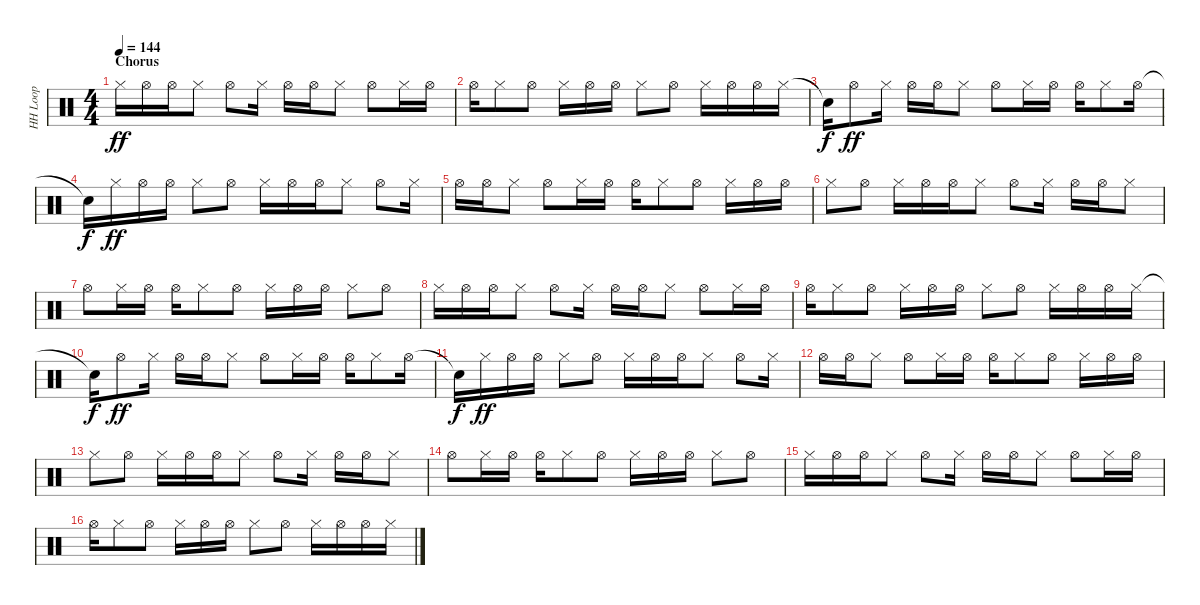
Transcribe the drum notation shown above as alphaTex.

\track ("HH Loop" "HH Loop") {instrument percussion}
\staff {score}
\articulation defaults
\ts (4 4)
\section ("" "Chorus")
\tempo 144
\clef neutral
\ks c "Hi-Hat (closed)".16{dy ff} "Hi-Hat (open)".16 "Hi-Hat (open)".16 "Hi-Hat (closed)".8 "Hi-Hat (open)".8 "Hi-Hat (closed)".16 "Hi-Hat (open)".16 "Hi-Hat (open)".16 "Hi-Hat (closed)".8 "Hi-Hat (open)".8 "Hi-Hat (closed)".16 "Hi-Hat (open)".16
|
"Hi-Hat (open)".16 "Hi-Hat (closed)".8 "Hi-Hat (open)".8 "Hi-Hat (closed)".16 "Hi-Hat (open)".16 "Hi-Hat (open)".16 "Hi-Hat (closed)".8 "Hi-Hat (open)".8 "Hi-Hat (closed)".16 "Hi-Hat (open)".16 "Hi-Hat (open)".16 "Hi-Hat (closed)".16 |
"Snare (hit)"{t}.16{dy f} "Hi-Hat (open)".8{dy ff} "Hi-Hat (closed)".16 "Hi-Hat (open)".16 "Hi-Hat (open)".16 "Hi-Hat (closed)".8 "Hi-Hat (open)".8 "Hi-Hat (closed)".16 "Hi-Hat (open)".16 "Hi-Hat (open)".16 "Hi-Hat (closed)".8 "Hi-Hat (open)".16 |
"Snare (hit)"{t}.16{dy f} "Hi-Hat (closed)".16{dy ff} "Hi-Hat (open)".16 "Hi-Hat (open)".16 "Hi-Hat (closed)".8 "Hi-Hat (open)".8 "Hi-Hat (closed)".16 "Hi-Hat (open)".16 "Hi-Hat (open)".16 "Hi-Hat (closed)".8 "Hi-Hat (open)".8 "Hi-Hat (closed)".16 |
"Hi-Hat (open)".16 "Hi-Hat (open)".16 "Hi-Hat (closed)".8 "Hi-Hat (open)".8 "Hi-Hat (closed)".16 "Hi-Hat (open)".16 "Hi-Hat (open)".16 "Hi-Hat (closed)".8 "Hi-Hat (open)".8 "Hi-Hat (closed)".16 "Hi-Hat (open)".16 "Hi-Hat (open)".16 |
"Hi-Hat (closed)".8 "Hi-Hat (open)".8 "Hi-Hat (closed)".16 "Hi-Hat (open)".16 "Hi-Hat (open)".16 "Hi-Hat (closed)".8 "Hi-Hat (open)".8 "Hi-Hat (closed)".16 "Hi-Hat (open)".16 "Hi-Hat (open)".16 "Hi-Hat (closed)".8 |
"Hi-Hat (open)".8 "Hi-Hat (closed)".16 "Hi-Hat (open)".16 "Hi-Hat (open)".16 "Hi-Hat (closed)".8 "Hi-Hat (open)".8 "Hi-Hat (closed)".16 "Hi-Hat (open)".16 "Hi-Hat (open)".16 "Hi-Hat (closed)".8 "Hi-Hat (open)".8 |
"Hi-Hat (closed)".16 "Hi-Hat (open)".16 "Hi-Hat (open)".16 "Hi-Hat (closed)".8 "Hi-Hat (open)".8 "Hi-Hat (closed)".16 "Hi-Hat (open)".16 "Hi-Hat (open)".16 "Hi-Hat (closed)".8 "Hi-Hat (open)".8 "Hi-Hat (closed)".16 "Hi-Hat (open)".16 |
"Hi-Hat (open)".16 "Hi-Hat (closed)".8 "Hi-Hat (open)".8 "Hi-Hat (closed)".16 "Hi-Hat (open)".16 "Hi-Hat (open)".16 "Hi-Hat (closed)".8 "Hi-Hat (open)".8 "Hi-Hat (closed)".16 "Hi-Hat (open)".16 "Hi-Hat (open)".16 "Hi-Hat (closed)".16 |
"Snare (hit)"{t}.16{dy f} "Hi-Hat (open)".8{dy ff} "Hi-Hat (closed)".16 "Hi-Hat (open)".16 "Hi-Hat (open)".16 "Hi-Hat (closed)".8 "Hi-Hat (open)".8 "Hi-Hat (closed)".16 "Hi-Hat (open)".16 "Hi-Hat (open)".16 "Hi-Hat (closed)".8 "Hi-Hat (open)".16 |
"Snare (hit)"{t}.16{dy f} "Hi-Hat (closed)".16{dy ff} "Hi-Hat (open)".16 "Hi-Hat (open)".16 "Hi-Hat (closed)".8 "Hi-Hat (open)".8 "Hi-Hat (closed)".16 "Hi-Hat (open)".16 "Hi-Hat (open)".16 "Hi-Hat (closed)".8 "Hi-Hat (open)".8 "Hi-Hat (closed)".16 |
"Hi-Hat (open)".16 "Hi-Hat (open)".16 "Hi-Hat (closed)".8 "Hi-Hat (open)".8 "Hi-Hat (closed)".16 "Hi-Hat (open)".16 "Hi-Hat (open)".16 "Hi-Hat (closed)".8 "Hi-Hat (open)".8 "Hi-Hat (closed)".16 "Hi-Hat (open)".16 "Hi-Hat (open)".16 |
"Hi-Hat (closed)".8 "Hi-Hat (open)".8 "Hi-Hat (closed)".16 "Hi-Hat (open)".16 "Hi-Hat (open)".16 "Hi-Hat (closed)".8 "Hi-Hat (open)".8 "Hi-Hat (closed)".16 "Hi-Hat (open)".16 "Hi-Hat (open)".16 "Hi-Hat (closed)".8 |
"Hi-Hat (open)".8 "Hi-Hat (closed)".16 "Hi-Hat (open)".16 "Hi-Hat (open)".16 "Hi-Hat (closed)".8 "Hi-Hat (open)".8 "Hi-Hat (closed)".16 "Hi-Hat (open)".16 "Hi-Hat (open)".16 "Hi-Hat (closed)".8 "Hi-Hat (open)".8 |
"Hi-Hat (closed)".16 "Hi-Hat (open)".16 "Hi-Hat (open)".16 "Hi-Hat (closed)".8 "Hi-Hat (open)".8 "Hi-Hat (closed)".16 "Hi-Hat (open)".16 "Hi-Hat (open)".16 "Hi-Hat (closed)".8 "Hi-Hat (open)".8 "Hi-Hat (closed)".16 "Hi-Hat (open)".16 |
"Hi-Hat (open)".16 "Hi-Hat (closed)".8 "Hi-Hat (open)".8 "Hi-Hat (closed)".16 "Hi-Hat (open)".16 "Hi-Hat (open)".16 "Hi-Hat (closed)".8 "Hi-Hat (open)".8 "Hi-Hat (closed)".16 "Hi-Hat (open)".16 "Hi-Hat (open)".16 "Hi-Hat (closed)".16
